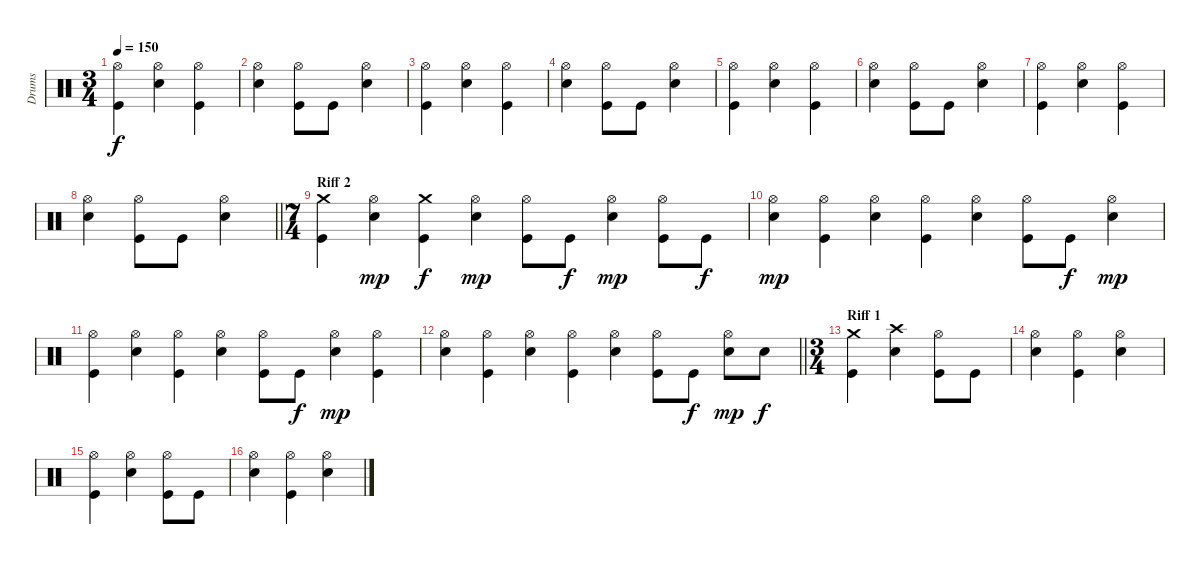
\track ("Drums" "Drums") {instrument percussion}
\staff {score}
\articulation defaults
\ts (3 4)
\tempo 150
\clef neutral
\ks c
("Hi-Hat (open)" "Kick (hit)").4{dy f} ("Hi-Hat (open)" "Electric Snare (hit)").4 ("Hi-Hat (open)" "Kick (hit)").4 |
("Hi-Hat (open)" "Electric Snare (hit)").4 ("Hi-Hat (open)" "Kick (hit)").8 "Kick (hit)".8 ("Hi-Hat (open)" "Electric Snare (hit)").4 |
("Hi-Hat (open)" "Kick (hit)").4 ("Hi-Hat (open)" "Electric Snare (hit)").4 ("Hi-Hat (open)" "Kick (hit)").4 |
("Hi-Hat (open)" "Electric Snare (hit)").4 ("Hi-Hat (open)" "Kick (hit)").8 "Kick (hit)".8 ("Hi-Hat (open)" "Electric Snare (hit)").4 |
("Hi-Hat (open)" "Kick (hit)").4 ("Hi-Hat (open)" "Electric Snare (hit)").4 ("Hi-Hat (open)" "Kick (hit)").4 |
("Hi-Hat (open)" "Electric Snare (hit)").4 ("Hi-Hat (open)" "Kick (hit)").8 "Kick (hit)".8 ("Hi-Hat (open)" "Electric Snare (hit)").4 |
("Hi-Hat (open)" "Kick (hit)").4 ("Hi-Hat (open)" "Electric Snare (hit)").4 ("Hi-Hat (open)" "Kick (hit)").4 |
\barLineRight lightlight
("Hi-Hat (open)" "Electric Snare (hit)").4 ("Hi-Hat (open)" "Kick (hit)").8 "Kick (hit)".8 ("Hi-Hat (open)" "Electric Snare (hit)").4 |
\ts (7 4)
\section ("" "Riff 2")
("Crash medium (hit)" "Kick (hit)").4 ("Hi-Hat (open)" "Electric Snare (hit)").4{dy mp} ("Crash medium (hit)" "Kick (hit)").4{dy f} ("Hi-Hat (open)" "Electric Snare (hit)").4{dy mp} ("Hi-Hat (open)" "Kick (hit)").8 "Kick (hit)".8{dy f} ("Hi-Hat (open)" "Electric Snare (hit)").4{dy mp} ("Hi-Hat (open)" "Kick (hit)").8 "Kick (hit)".8{dy f} |
("Hi-Hat (open)" "Electric Snare (hit)").4{dy mp} ("Hi-Hat (open)" "Kick (hit)").4 ("Hi-Hat (open)" "Electric Snare (hit)").4 ("Hi-Hat (open)" "Kick (hit)").4 ("Hi-Hat (open)" "Electric Snare (hit)").4 ("Hi-Hat (open)" "Kick (hit)").8 "Kick (hit)".8{dy f} ("Hi-Hat (open)" "Electric Snare (hit)").4{dy mp} |
("Hi-Hat (open)" "Kick (hit)").4 ("Hi-Hat (open)" "Electric Snare (hit)").4 ("Hi-Hat (open)" "Kick (hit)").4 ("Hi-Hat (open)" "Electric Snare (hit)").4 ("Hi-Hat (open)" "Kick (hit)").8 "Kick (hit)".8{dy f} ("Hi-Hat (open)" "Electric Snare (hit)").4{dy mp} ("Hi-Hat (open)" "Kick (hit)").4 |
\barLineRight lightlight
("Hi-Hat (open)" "Electric Snare (hit)").4 ("Hi-Hat (open)" "Kick (hit)").4 ("Hi-Hat (open)" "Electric Snare (hit)").4 ("Hi-Hat (open)" "Kick (hit)").4 ("Hi-Hat (open)" "Electric Snare (hit)").4 ("Hi-Hat (open)" "Kick (hit)").8 "Kick (hit)".8{dy f} ("Hi-Hat (open)" "Electric Snare (hit)").8{dy mp} "Electric Snare (hit)".8{dy f} |
\ts (3 4)
\section ("" "Riff 1")
("Crash medium (hit)" "Kick (hit)").4 ("Crash high (hit)" "Electric Snare (hit)").4 ("Hi-Hat (open)" "Kick (hit)").8 "Kick (hit)".8 |
("Hi-Hat (open)" "Electric Snare (hit)").4 ("Hi-Hat (open)" "Kick (hit)").4 ("Hi-Hat (open)" "Electric Snare (hit)").4 |
("Hi-Hat (open)" "Kick (hit)").4 ("Hi-Hat (open)" "Electric Snare (hit)").4 ("Hi-Hat (open)" "Kick (hit)").8 "Kick (hit)".8 |
("Hi-Hat (open)" "Electric Snare (hit)").4 ("Hi-Hat (open)" "Kick (hit)").4 ("Hi-Hat (open)" "Electric Snare (hit)").4
